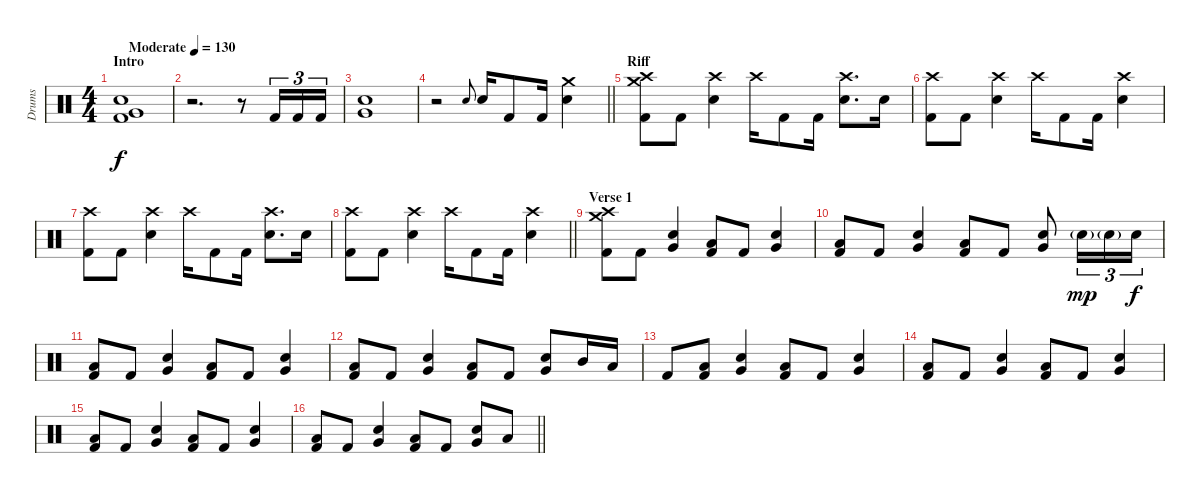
\track ("Drums" "Drums") {instrument percussion}
\staff {score}
\articulation defaults
\ts (4 4)
\section ("" "Intro")
\tempo (130 "Moderate")
\clef neutral
\ks c
("Very Low Tom (hit)" "Electric Snare (hit)" "Kick (hit) 2").1{dy f} |
r.2{d} r.8 "Kick (hit) 2".16{tu (3 2)} "Kick (hit) 2".16{tu (3 2)} "Kick (hit) 2".16{tu (3 2)} |
("Very Low Tom (hit)" "Electric Snare (hit)").1 |
\barLineRight lightlight
r.2 "Electric Snare (hit)".8{gr onbeat} "Electric Snare (hit)".16 "Kick (hit) 2".8 "Kick (hit) 2".16 ("Crash medium (hit)" "Electric Snare (hit)").4 |
\section ("" "Riff")
("Crash high (hit)" "Crash medium (hit)" "Kick (hit) 2").8 "Kick (hit) 2".8 ("Crash high (hit)" "Electric Snare (hit)").4 "Crash high (hit)".16 "Kick (hit) 2".8 "Kick (hit) 2".16 ("Crash high (hit)" "Electric Snare (hit)").8{d} "Electric Snare (hit)".16 |
("Crash high (hit)" "Kick (hit) 2").8 "Kick (hit) 2".8 ("Crash high (hit)" "Electric Snare (hit)").4 "Crash high (hit)".16 "Kick (hit) 2".8 "Kick (hit) 2".16 ("Crash high (hit)" "Electric Snare (hit)").4 |
("Crash high (hit)" "Kick (hit) 2").8 "Kick (hit) 2".8 ("Crash high (hit)" "Electric Snare (hit)").4 "Crash high (hit)".16 "Kick (hit) 2".8 "Kick (hit) 2".16 ("Crash high (hit)" "Electric Snare (hit)").8{d} "Electric Snare (hit)".16 |
\barLineRight lightlight
("Crash high (hit)" "Kick (hit) 2").8 "Kick (hit) 2".8 ("Crash high (hit)" "Electric Snare (hit)").4 "Crash high (hit)".16 "Kick (hit) 2".8 "Kick (hit) 2".16 ("Crash high (hit)" "Electric Snare (hit)").4 |
\section ("" "Verse 1")
("Crash high (hit)" "Crash medium (hit)" "Kick (hit) 2").8 "Kick (hit) 2".8 ("Very Low Tom (hit)" "Electric Snare (hit)").4 ("Low Tom (hit)" "Kick (hit) 2").8 "Kick (hit) 2".8 ("Very Low Tom (hit)" "Electric Snare (hit)").4 |
("Low Tom (hit)" "Kick (hit) 2").8 "Kick (hit) 2".8 ("Very Low Tom (hit)" "Electric Snare (hit)").4 ("Low Tom (hit)" "Kick (hit) 2").8 "Kick (hit) 2".8 ("Very Low Tom (hit)" "Electric Snare (hit)").8 "Electric Snare (hit)"{g}.16{tu (3 2) dy mp} "Electric Snare (hit)"{g}.16{tu (3 2)} "Electric Snare (hit)".16{tu (3 2) dy f} |
("Low Tom (hit)" "Kick (hit) 2").8 "Kick (hit) 2".8 ("Very Low Tom (hit)" "Electric Snare (hit)").4 ("Low Tom (hit)" "Kick (hit) 2").8 "Kick (hit) 2".8 ("Very Low Tom (hit)" "Electric Snare (hit)").4 |
("Low Tom (hit)" "Kick (hit) 2").8 "Kick (hit) 2".8 ("Very Low Tom (hit)" "Electric Snare (hit)").4 ("Low Tom (hit)" "Kick (hit) 2").8 "Kick (hit) 2".8 ("Very Low Tom (hit)" "Electric Snare (hit)").8 "Mid Tom (hit)".16 "Low Tom (hit)".16 |
"Kick (hit) 2".8 ("Low Tom (hit)" "Kick (hit) 2").8 ("Very Low Tom (hit)" "Electric Snare (hit)").4 ("Low Tom (hit)" "Kick (hit) 2").8 "Kick (hit) 2".8 ("Very Low Tom (hit)" "Electric Snare (hit)").4 |
("Low Tom (hit)" "Kick (hit) 2").8 "Kick (hit) 2".8 ("Very Low Tom (hit)" "Electric Snare (hit)").4 ("Low Tom (hit)" "Kick (hit) 2").8 "Kick (hit) 2".8 ("Very Low Tom (hit)" "Electric Snare (hit)").4 |
("Low Tom (hit)" "Kick (hit) 2").8 "Kick (hit) 2".8 ("Very Low Tom (hit)" "Electric Snare (hit)").4 ("Low Tom (hit)" "Kick (hit) 2").8 "Kick (hit) 2".8 ("Very Low Tom (hit)" "Electric Snare (hit)").4 |
\barLineRight lightlight
("Low Tom (hit)" "Kick (hit) 2").8 "Kick (hit) 2".8 ("Very Low Tom (hit)" "Electric Snare (hit)").4 ("Low Tom (hit)" "Kick (hit) 2").8 "Kick (hit) 2".8 ("Very Low Tom (hit)" "Electric Snare (hit)").8 "Low Floor Tom (hit)".8
